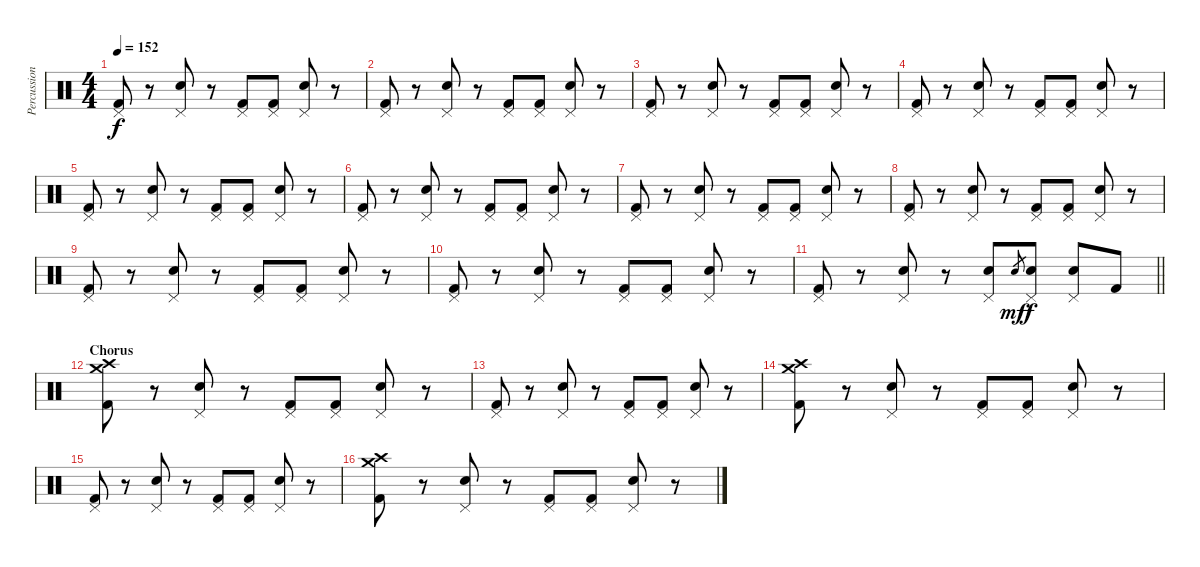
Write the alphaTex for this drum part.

\track ("Percussion" "Percussion") {instrument percussion}
\staff {score}
\articulation defaults
\ts (4 4)
\tempo 152
\clef neutral
\ks c
("Kick (hit) 2" "Pedal Hi-Hat (hit)").8{dy f} r.8 ("Snare (hit) 2" "Pedal Hi-Hat (hit)").8 r.8 ("Kick (hit) 2" "Pedal Hi-Hat (hit)").8 ("Kick (hit) 2" "Pedal Hi-Hat (hit)").8 ("Snare (hit) 2" "Pedal Hi-Hat (hit)").8 r.8 |
("Kick (hit) 2" "Pedal Hi-Hat (hit)").8 r.8 ("Snare (hit) 2" "Pedal Hi-Hat (hit)").8 r.8 ("Kick (hit) 2" "Pedal Hi-Hat (hit)").8 ("Kick (hit) 2" "Pedal Hi-Hat (hit)").8 ("Snare (hit) 2" "Pedal Hi-Hat (hit)").8 r.8 |
("Kick (hit) 2" "Pedal Hi-Hat (hit)").8 r.8 ("Snare (hit) 2" "Pedal Hi-Hat (hit)").8 r.8 ("Kick (hit) 2" "Pedal Hi-Hat (hit)").8 ("Kick (hit) 2" "Pedal Hi-Hat (hit)").8 ("Snare (hit) 2" "Pedal Hi-Hat (hit)").8 r.8 |
("Kick (hit) 2" "Pedal Hi-Hat (hit)").8 r.8 ("Snare (hit) 2" "Pedal Hi-Hat (hit)").8 r.8 ("Kick (hit) 2" "Pedal Hi-Hat (hit)").8 ("Kick (hit) 2" "Pedal Hi-Hat (hit)").8 ("Snare (hit) 2" "Pedal Hi-Hat (hit)").8 r.8 |
("Kick (hit) 2" "Pedal Hi-Hat (hit)").8 r.8 ("Snare (hit) 2" "Pedal Hi-Hat (hit)").8 r.8 ("Kick (hit) 2" "Pedal Hi-Hat (hit)").8 ("Kick (hit) 2" "Pedal Hi-Hat (hit)").8 ("Snare (hit) 2" "Pedal Hi-Hat (hit)").8 r.8 |
("Kick (hit) 2" "Pedal Hi-Hat (hit)").8 r.8 ("Snare (hit) 2" "Pedal Hi-Hat (hit)").8 r.8 ("Kick (hit) 2" "Pedal Hi-Hat (hit)").8 ("Kick (hit) 2" "Pedal Hi-Hat (hit)").8 ("Snare (hit) 2" "Pedal Hi-Hat (hit)").8 r.8 |
("Kick (hit) 2" "Pedal Hi-Hat (hit)").8 r.8 ("Snare (hit) 2" "Pedal Hi-Hat (hit)").8 r.8 ("Kick (hit) 2" "Pedal Hi-Hat (hit)").8 ("Kick (hit) 2" "Pedal Hi-Hat (hit)").8 ("Snare (hit) 2" "Pedal Hi-Hat (hit)").8 r.8 |
("Kick (hit) 2" "Pedal Hi-Hat (hit)").8 r.8 ("Snare (hit) 2" "Pedal Hi-Hat (hit)").8 r.8 ("Kick (hit) 2" "Pedal Hi-Hat (hit)").8 ("Kick (hit) 2" "Pedal Hi-Hat (hit)").8 ("Snare (hit) 2" "Pedal Hi-Hat (hit)").8 r.8 |
("Kick (hit) 2" "Pedal Hi-Hat (hit)").8 r.8 ("Snare (hit) 2" "Pedal Hi-Hat (hit)").8 r.8 ("Kick (hit) 2" "Pedal Hi-Hat (hit)").8 ("Kick (hit) 2" "Pedal Hi-Hat (hit)").8 ("Snare (hit) 2" "Pedal Hi-Hat (hit)").8 r.8 |
("Kick (hit) 2" "Pedal Hi-Hat (hit)").8 r.8 ("Snare (hit) 2" "Pedal Hi-Hat (hit)").8 r.8 ("Kick (hit) 2" "Pedal Hi-Hat (hit)").8 ("Kick (hit) 2" "Pedal Hi-Hat (hit)").8 ("Snare (hit) 2" "Pedal Hi-Hat (hit)").8 r.8 |
\barLineRight lightlight
("Kick (hit) 2" "Pedal Hi-Hat (hit)").8 r.8 ("Snare (hit) 2" "Pedal Hi-Hat (hit)").8 r.8 ("Snare (hit) 2" "Pedal Hi-Hat (hit)").8 "Snare (hit) 2".8{gr dy mf} ("Snare (hit) 2" "Pedal Hi-Hat (hit)").8{dy f} ("Snare (hit) 2" "Pedal Hi-Hat (hit)").8 "Kick (hit) 2".8 |
\section ("" "Chorus")
("Kick (hit) 2" "Crash high (hit)" "Crash medium (hit)").8 r.8 ("Snare (hit) 2" "Pedal Hi-Hat (hit)").8 r.8 ("Kick (hit) 2" "Pedal Hi-Hat (hit)").8 ("Kick (hit) 2" "Pedal Hi-Hat (hit)").8 ("Snare (hit) 2" "Pedal Hi-Hat (hit)").8 r.8 |
("Kick (hit) 2" "Pedal Hi-Hat (hit)").8 r.8 ("Snare (hit) 2" "Pedal Hi-Hat (hit)").8 r.8 ("Kick (hit) 2" "Pedal Hi-Hat (hit)").8 ("Kick (hit) 2" "Pedal Hi-Hat (hit)").8 ("Snare (hit) 2" "Pedal Hi-Hat (hit)").8 r.8 |
("Kick (hit) 2" "Crash high (hit)" "Crash medium (hit)").8 r.8 ("Snare (hit) 2" "Pedal Hi-Hat (hit)").8 r.8 ("Kick (hit) 2" "Pedal Hi-Hat (hit)").8 ("Kick (hit) 2" "Pedal Hi-Hat (hit)").8 ("Snare (hit) 2" "Pedal Hi-Hat (hit)").8 r.8 |
("Kick (hit) 2" "Pedal Hi-Hat (hit)").8 r.8 ("Snare (hit) 2" "Pedal Hi-Hat (hit)").8 r.8 ("Kick (hit) 2" "Pedal Hi-Hat (hit)").8 ("Kick (hit) 2" "Pedal Hi-Hat (hit)").8 ("Snare (hit) 2" "Pedal Hi-Hat (hit)").8 r.8 |
("Kick (hit) 2" "Crash high (hit)" "Crash medium (hit)").8 r.8 ("Snare (hit) 2" "Pedal Hi-Hat (hit)").8 r.8 ("Kick (hit) 2" "Pedal Hi-Hat (hit)").8 ("Kick (hit) 2" "Pedal Hi-Hat (hit)").8 ("Snare (hit) 2" "Pedal Hi-Hat (hit)").8 r.8
